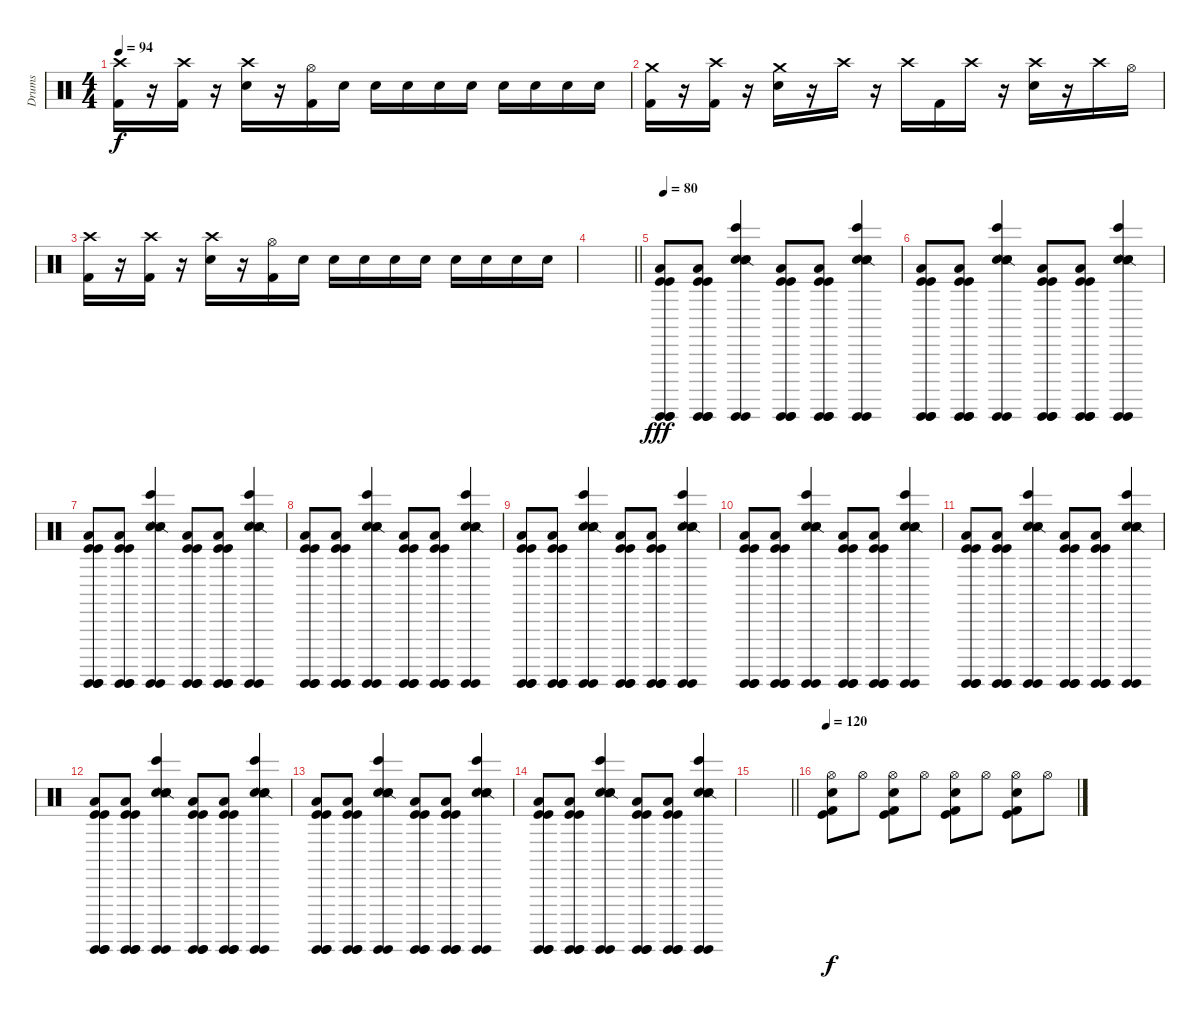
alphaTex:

\track ("Drums" "Drums") {instrument percussion}
\staff {score}
\articulation defaults
\ts (4 4)
\tempo 94
\clef neutral
\ks c
("Crash high (hit)" "Kick (hit) 2").16{dy f} r.16 ("Crash high (hit)" "Kick (hit) 2").16 r.16 ("Crash high (hit)" "Electric Snare (hit)").16 r.16 ("Hi-Hat (open)" "Kick (hit) 2").16 "Electric Snare (hit)".16 "Electric Snare (hit)".16 "Electric Snare (hit)".16 "Electric Snare (hit)".16 "Electric Snare (hit)".16 "Electric Snare (hit)".16 "Electric Snare (hit)".16 "Electric Snare (hit)".16 "Electric Snare (hit)".16 |
("Crash medium (hit)" "Kick (hit) 2").16 r.16 ("Crash high (hit)" "Kick (hit) 2").16 r.16 ("Crash medium (hit)" "Electric Snare (hit)").16 r.16 "Crash high (hit)".16 r.16 "Crash high (hit)".16 "Kick (hit) 2".16 "Crash high (hit)".16 r.16 ("Crash high (hit)" "Electric Snare (hit)").16 r.16 "Crash high (hit)".16 "Hi-Hat (open)".16 |
("Crash high (hit)" "Kick (hit) 2").16 r.16 ("Crash high (hit)" "Kick (hit) 2").16 r.16 ("Crash high (hit)" "Electric Snare (hit)").16 r.16 ("Hi-Hat (open)" "Kick (hit) 2").16 "Electric Snare (hit)".16 "Electric Snare (hit)".16 "Electric Snare (hit)".16 "Electric Snare (hit)".16 "Electric Snare (hit)".16 "Electric Snare (hit)".16 "Electric Snare (hit)".16 "Electric Snare (hit)".16 "Electric Snare (hit)".16 |
\barLineRight lightlight
|
\tempo 80
("Guiro (hit)" "Guiro (hit)" "Guiro (hit)" "Low Tom (hit)" "Kick (hit)" "Kick (hit)").8{dy fff} ("Guiro (hit)" "Guiro (hit)" "Guiro (hit)" "Low Tom (hit)" "Kick (hit)" "Kick (hit)").8 ("Guiro (hit)" "Guiro (hit)" "Snare (hit) 2" "Bongo High (hit)" "Hand Clap (hit)" "Snare (side stick) 2").4 ("Guiro (hit)" "Guiro (hit)" "Guiro (hit)" "Low Tom (hit)" "Kick (hit)" "Kick (hit)").8 ("Guiro (hit)" "Guiro (hit)" "Guiro (hit)" "Low Tom (hit)" "Kick (hit)" "Kick (hit)").8 ("Guiro (hit)" "Guiro (hit)" "Snare (hit) 2" "Bongo High (hit)" "Hand Clap (hit)" "Snare (side stick) 2").4 |
("Guiro (hit)" "Guiro (hit)" "Guiro (hit)" "Low Tom (hit)" "Kick (hit)" "Kick (hit)").8 ("Guiro (hit)" "Guiro (hit)" "Guiro (hit)" "Low Tom (hit)" "Kick (hit)" "Kick (hit)").8 ("Guiro (hit)" "Guiro (hit)" "Snare (hit) 2" "Bongo High (hit)" "Hand Clap (hit)" "Snare (side stick) 2").4 ("Guiro (hit)" "Guiro (hit)" "Guiro (hit)" "Low Tom (hit)" "Kick (hit)" "Kick (hit)").8 ("Guiro (hit)" "Guiro (hit)" "Guiro (hit)" "Low Tom (hit)" "Kick (hit)" "Kick (hit)").8 ("Guiro (hit)" "Guiro (hit)" "Snare (hit) 2" "Bongo High (hit)" "Hand Clap (hit)" "Snare (side stick) 2").4 |
("Guiro (hit)" "Guiro (hit)" "Guiro (hit)" "Low Tom (hit)" "Kick (hit)" "Kick (hit)").8 ("Guiro (hit)" "Guiro (hit)" "Guiro (hit)" "Low Tom (hit)" "Kick (hit)" "Kick (hit)").8 ("Guiro (hit)" "Guiro (hit)" "Snare (hit) 2" "Bongo High (hit)" "Hand Clap (hit)" "Snare (side stick) 2").4 ("Guiro (hit)" "Guiro (hit)" "Guiro (hit)" "Low Tom (hit)" "Kick (hit)" "Kick (hit)").8 ("Guiro (hit)" "Guiro (hit)" "Guiro (hit)" "Low Tom (hit)" "Kick (hit)" "Kick (hit)").8 ("Guiro (hit)" "Guiro (hit)" "Snare (hit) 2" "Bongo High (hit)" "Hand Clap (hit)" "Snare (side stick) 2").4 |
("Guiro (hit)" "Guiro (hit)" "Guiro (hit)" "Low Tom (hit)" "Kick (hit)" "Kick (hit)").8 ("Guiro (hit)" "Guiro (hit)" "Guiro (hit)" "Low Tom (hit)" "Kick (hit)" "Kick (hit)").8 ("Guiro (hit)" "Guiro (hit)" "Snare (hit) 2" "Bongo High (hit)" "Hand Clap (hit)" "Snare (side stick) 2").4 ("Guiro (hit)" "Guiro (hit)" "Guiro (hit)" "Low Tom (hit)" "Kick (hit)" "Kick (hit)").8 ("Guiro (hit)" "Guiro (hit)" "Guiro (hit)" "Low Tom (hit)" "Kick (hit)" "Kick (hit)").8 ("Guiro (hit)" "Guiro (hit)" "Snare (hit) 2" "Bongo High (hit)" "Hand Clap (hit)" "Snare (side stick) 2").4 |
("Guiro (hit)" "Guiro (hit)" "Guiro (hit)" "Low Tom (hit)" "Kick (hit)" "Kick (hit)").8 ("Guiro (hit)" "Guiro (hit)" "Guiro (hit)" "Low Tom (hit)" "Kick (hit)" "Kick (hit)").8 ("Guiro (hit)" "Guiro (hit)" "Snare (hit) 2" "Bongo High (hit)" "Hand Clap (hit)" "Snare (side stick) 2").4 ("Guiro (hit)" "Guiro (hit)" "Guiro (hit)" "Low Tom (hit)" "Kick (hit)" "Kick (hit)").8 ("Guiro (hit)" "Guiro (hit)" "Guiro (hit)" "Low Tom (hit)" "Kick (hit)" "Kick (hit)").8 ("Guiro (hit)" "Guiro (hit)" "Snare (hit) 2" "Bongo High (hit)" "Hand Clap (hit)" "Snare (side stick) 2").4 |
("Guiro (hit)" "Guiro (hit)" "Guiro (hit)" "Low Tom (hit)" "Kick (hit)" "Kick (hit)").8 ("Guiro (hit)" "Guiro (hit)" "Guiro (hit)" "Low Tom (hit)" "Kick (hit)" "Kick (hit)").8 ("Guiro (hit)" "Guiro (hit)" "Snare (hit) 2" "Bongo High (hit)" "Hand Clap (hit)" "Snare (side stick) 2").4 ("Guiro (hit)" "Guiro (hit)" "Guiro (hit)" "Low Tom (hit)" "Kick (hit)" "Kick (hit)").8 ("Guiro (hit)" "Guiro (hit)" "Guiro (hit)" "Low Tom (hit)" "Kick (hit)" "Kick (hit)").8 ("Guiro (hit)" "Guiro (hit)" "Snare (hit) 2" "Bongo High (hit)" "Hand Clap (hit)" "Snare (side stick) 2").4 |
("Guiro (hit)" "Guiro (hit)" "Guiro (hit)" "Low Tom (hit)" "Kick (hit)" "Kick (hit)").8 ("Guiro (hit)" "Guiro (hit)" "Guiro (hit)" "Low Tom (hit)" "Kick (hit)" "Kick (hit)").8 ("Guiro (hit)" "Guiro (hit)" "Snare (hit) 2" "Bongo High (hit)" "Hand Clap (hit)" "Snare (side stick) 2").4 ("Guiro (hit)" "Guiro (hit)" "Guiro (hit)" "Low Tom (hit)" "Kick (hit)" "Kick (hit)").8 ("Guiro (hit)" "Guiro (hit)" "Guiro (hit)" "Low Tom (hit)" "Kick (hit)" "Kick (hit)").8 ("Guiro (hit)" "Guiro (hit)" "Snare (hit) 2" "Bongo High (hit)" "Hand Clap (hit)" "Snare (side stick) 2").4 |
("Guiro (hit)" "Guiro (hit)" "Guiro (hit)" "Low Tom (hit)" "Kick (hit)" "Kick (hit)").8 ("Guiro (hit)" "Guiro (hit)" "Guiro (hit)" "Low Tom (hit)" "Kick (hit)" "Kick (hit)").8 ("Guiro (hit)" "Guiro (hit)" "Snare (hit) 2" "Bongo High (hit)" "Hand Clap (hit)" "Snare (side stick) 2").4 ("Guiro (hit)" "Guiro (hit)" "Guiro (hit)" "Low Tom (hit)" "Kick (hit)" "Kick (hit)").8 ("Guiro (hit)" "Guiro (hit)" "Guiro (hit)" "Low Tom (hit)" "Kick (hit)" "Kick (hit)").8 ("Guiro (hit)" "Guiro (hit)" "Snare (hit) 2" "Bongo High (hit)" "Hand Clap (hit)" "Snare (side stick) 2").4 |
("Guiro (hit)" "Guiro (hit)" "Guiro (hit)" "Low Tom (hit)" "Kick (hit)" "Kick (hit)").8 ("Guiro (hit)" "Guiro (hit)" "Guiro (hit)" "Low Tom (hit)" "Kick (hit)" "Kick (hit)").8 ("Guiro (hit)" "Guiro (hit)" "Snare (hit) 2" "Bongo High (hit)" "Hand Clap (hit)" "Snare (side stick) 2").4 ("Guiro (hit)" "Guiro (hit)" "Guiro (hit)" "Low Tom (hit)" "Kick (hit)" "Kick (hit)").8 ("Guiro (hit)" "Guiro (hit)" "Guiro (hit)" "Low Tom (hit)" "Kick (hit)" "Kick (hit)").8 ("Guiro (hit)" "Guiro (hit)" "Snare (hit) 2" "Bongo High (hit)" "Hand Clap (hit)" "Snare (side stick) 2").4 |
("Guiro (hit)" "Guiro (hit)" "Guiro (hit)" "Low Tom (hit)" "Kick (hit)" "Kick (hit)").8 ("Guiro (hit)" "Guiro (hit)" "Guiro (hit)" "Low Tom (hit)" "Kick (hit)" "Kick (hit)").8 ("Guiro (hit)" "Guiro (hit)" "Snare (hit) 2" "Bongo High (hit)" "Hand Clap (hit)" "Snare (side stick) 2").4 ("Guiro (hit)" "Guiro (hit)" "Guiro (hit)" "Low Tom (hit)" "Kick (hit)" "Kick (hit)").8 ("Guiro (hit)" "Guiro (hit)" "Guiro (hit)" "Low Tom (hit)" "Kick (hit)" "Kick (hit)").8 ("Guiro (hit)" "Guiro (hit)" "Snare (hit) 2" "Bongo High (hit)" "Hand Clap (hit)" "Snare (side stick) 2").4 |
\barLineRight lightlight
|
\tempo 120
("Hi-Hat (open)" "Kick (hit) 2" "Kick (hit)" "Snare (hit) 2").8{dy f volume 13} "Hi-Hat (open)".8 ("Kick (hit) 2" "Kick (hit)" "Hi-Hat (open)" "Snare (hit) 2").8 "Hi-Hat (open)".8 ("Hi-Hat (open)" "Kick (hit) 2" "Kick (hit)" "Snare (hit) 2").8 "Hi-Hat (open)".8 ("Kick (hit) 2" "Kick (hit)" "Hi-Hat (open)" "Snare (hit) 2").8 "Hi-Hat (open)".8
